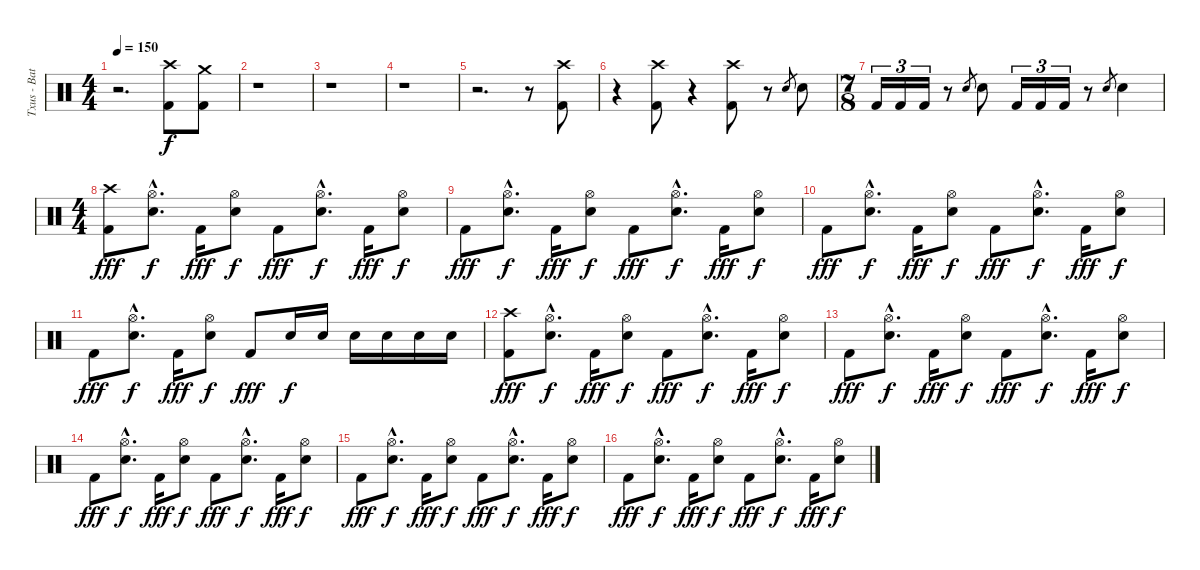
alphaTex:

\track ("Txus - Batería" "Txus - Bat") {instrument percussion}
\staff {score}
\articulation defaults
\ts (4 4)
\tempo 150
\clef neutral
\ks c
r.2{d dy f} ("Crash high (hit)" "Kick (hit) 2").8 ("Crash medium (hit)" "Kick (hit) 2").8 |
r.1 |
r.1 |
r.1 |
r.2{d} r.8 ("Crash high (hit)" "Kick (hit) 2").8 |
r.4 ("Crash high (hit)" "Kick (hit) 2").8 r.4 ("Crash high (hit)" "Kick (hit) 2").8 r.8 "Electric Snare (hit)".8{gr} "Electric Snare (hit)".8 |
\ts (7 8)
"Kick (hit) 2".16{tu (3 2)} "Kick (hit) 2".16{tu (3 2)} "Kick (hit) 2".16{tu (3 2)} r.8 "Electric Snare (hit)".8{gr} "Electric Snare (hit)".8 "Kick (hit) 2".16{tu (3 2)} "Kick (hit) 2".16{tu (3 2)} "Kick (hit) 2".16{tu (3 2)} r.8 "Electric Snare (hit)".8{gr} "Electric Snare (hit)".4 |
\ts (4 4)
("Crash high (hit)" "Kick (hit) 2").8{dy fff} ("Hi-Hat (open)"{hac} "Electric Snare (hit)"{hac}).8{d dy f} "Kick (hit) 2".16{dy fff} ("Hi-Hat (open)" "Electric Snare (hit)").8{dy f} "Kick (hit) 2".8{dy fff} ("Hi-Hat (open)"{hac} "Electric Snare (hit)"{hac}).8{d dy f} "Kick (hit) 2".16{dy fff} ("Hi-Hat (open)" "Electric Snare (hit)").8{dy f} |
"Kick (hit) 2".8{dy fff} ("Hi-Hat (open)"{hac} "Electric Snare (hit)"{hac}).8{d dy f} "Kick (hit) 2".16{dy fff} ("Hi-Hat (open)" "Electric Snare (hit)").8{dy f} "Kick (hit) 2".8{dy fff} ("Hi-Hat (open)"{hac} "Electric Snare (hit)"{hac}).8{d dy f} "Kick (hit) 2".16{dy fff} ("Hi-Hat (open)" "Electric Snare (hit)").8{dy f} |
"Kick (hit) 2".8{dy fff} ("Hi-Hat (open)"{hac} "Electric Snare (hit)"{hac}).8{d dy f} "Kick (hit) 2".16{dy fff} ("Hi-Hat (open)" "Electric Snare (hit)").8{dy f} "Kick (hit) 2".8{dy fff} ("Hi-Hat (open)"{hac} "Electric Snare (hit)"{hac}).8{d dy f} "Kick (hit) 2".16{dy fff} ("Hi-Hat (open)" "Electric Snare (hit)").8{dy f} |
"Kick (hit) 2".8{dy fff} ("Hi-Hat (open)"{hac} "Electric Snare (hit)"{hac}).8{d dy f} "Kick (hit) 2".16{dy fff} ("Hi-Hat (open)" "Electric Snare (hit)").8{dy f} "Kick (hit) 2".8{dy fff} "Electric Snare (hit)".16{dy f} "Electric Snare (hit)".16 "Electric Snare (hit)".16 "Electric Snare (hit)".16 "Electric Snare (hit)".16 "Electric Snare (hit)".16 |
("Crash high (hit)" "Kick (hit) 2").8{dy fff} ("Hi-Hat (open)"{hac} "Electric Snare (hit)"{hac}).8{d dy f} "Kick (hit) 2".16{dy fff} ("Hi-Hat (open)" "Electric Snare (hit)").8{dy f} "Kick (hit) 2".8{dy fff} ("Hi-Hat (open)"{hac} "Electric Snare (hit)"{hac}).8{d dy f} "Kick (hit) 2".16{dy fff} ("Hi-Hat (open)" "Electric Snare (hit)").8{dy f} |
"Kick (hit) 2".8{dy fff} ("Hi-Hat (open)"{hac} "Electric Snare (hit)"{hac}).8{d dy f} "Kick (hit) 2".16{dy fff} ("Hi-Hat (open)" "Electric Snare (hit)").8{dy f} "Kick (hit) 2".8{dy fff} ("Hi-Hat (open)"{hac} "Electric Snare (hit)"{hac}).8{d dy f} "Kick (hit) 2".16{dy fff} ("Hi-Hat (open)" "Electric Snare (hit)").8{dy f} |
"Kick (hit) 2".8{dy fff} ("Hi-Hat (open)"{hac} "Electric Snare (hit)"{hac}).8{d dy f} "Kick (hit) 2".16{dy fff} ("Hi-Hat (open)" "Electric Snare (hit)").8{dy f} "Kick (hit) 2".8{dy fff} ("Hi-Hat (open)"{hac} "Electric Snare (hit)"{hac}).8{d dy f} "Kick (hit) 2".16{dy fff} ("Hi-Hat (open)" "Electric Snare (hit)").8{dy f} |
"Kick (hit) 2".8{dy fff} ("Hi-Hat (open)"{hac} "Electric Snare (hit)"{hac}).8{d dy f} "Kick (hit) 2".16{dy fff} ("Hi-Hat (open)" "Electric Snare (hit)").8{dy f} "Kick (hit) 2".8{dy fff} ("Hi-Hat (open)"{hac} "Electric Snare (hit)"{hac}).8{d dy f} "Kick (hit) 2".16{dy fff} ("Hi-Hat (open)" "Electric Snare (hit)").8{dy f} |
"Kick (hit) 2".8{dy fff} ("Hi-Hat (open)"{hac} "Electric Snare (hit)"{hac}).8{d dy f} "Kick (hit) 2".16{dy fff} ("Hi-Hat (open)" "Electric Snare (hit)").8{dy f} "Kick (hit) 2".8{dy fff} ("Hi-Hat (open)"{hac} "Electric Snare (hit)"{hac}).8{d dy f} "Kick (hit) 2".16{dy fff} ("Hi-Hat (open)" "Electric Snare (hit)").8{dy f}
